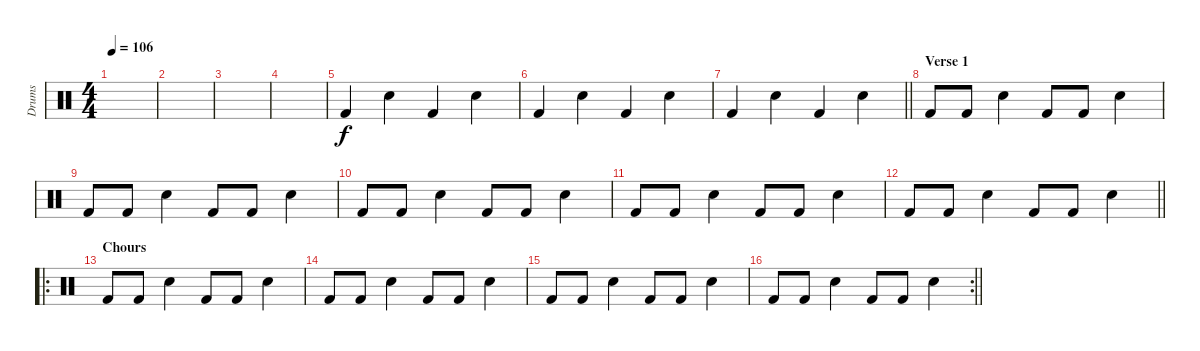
\track ("Drums" "Drums") {instrument percussion}
\staff {score}
\articulation defaults
\ts (4 4)
\tempo 106
\clef neutral
\ks c
|
|
|
|
"Kick (hit) 2".4 "Snare (hit) 2".4 "Kick (hit) 2".4 "Snare (hit) 2".4 |
"Kick (hit) 2".4 "Snare (hit) 2".4 "Kick (hit) 2".4 "Snare (hit) 2".4 |
\barLineRight lightlight "Kick (hit) 2".4 "Snare (hit) 2".4 "Kick (hit) 2".4 "Snare (hit) 2".4
|
\section ("" "Verse 1")
"Kick (hit) 2".8 "Kick (hit) 2".8 "Snare (hit) 2".4 "Kick (hit) 2".8 "Kick (hit) 2".8 "Snare (hit) 2".4 |
"Kick (hit) 2".8 "Kick (hit) 2".8 "Snare (hit) 2".4 "Kick (hit) 2".8 "Kick (hit) 2".8 "Snare (hit) 2".4 |
"Kick (hit) 2".8 "Kick (hit) 2".8 "Snare (hit) 2".4 "Kick (hit) 2".8 "Kick (hit) 2".8 "Snare (hit) 2".4 |
"Kick (hit) 2".8 "Kick (hit) 2".8 "Snare (hit) 2".4 "Kick (hit) 2".8 "Kick (hit) 2".8 "Snare (hit) 2".4 |
\barLineRight lightlight "Kick (hit) 2".8 "Kick (hit) 2".8 "Snare (hit) 2".4 "Kick (hit) 2".8 "Kick (hit) 2".8 "Snare (hit) 2".4
|
\ro
\section ("" "Chours")
"Kick (hit) 2".8 "Kick (hit) 2".8 "Snare (hit) 2".4 "Kick (hit) 2".8 "Kick (hit) 2".8 "Snare (hit) 2".4 |
"Kick (hit) 2".8 "Kick (hit) 2".8 "Snare (hit) 2".4 "Kick (hit) 2".8 "Kick (hit) 2".8 "Snare (hit) 2".4 |
"Kick (hit) 2".8 "Kick (hit) 2".8 "Snare (hit) 2".4 "Kick (hit) 2".8 "Kick (hit) 2".8 "Snare (hit) 2".4 |
\rc 2
\barLineRight lightlight "Kick (hit) 2".8 "Kick (hit) 2".8 "Snare (hit) 2".4 "Kick (hit) 2".8 "Kick (hit) 2".8 "Snare (hit) 2".4
